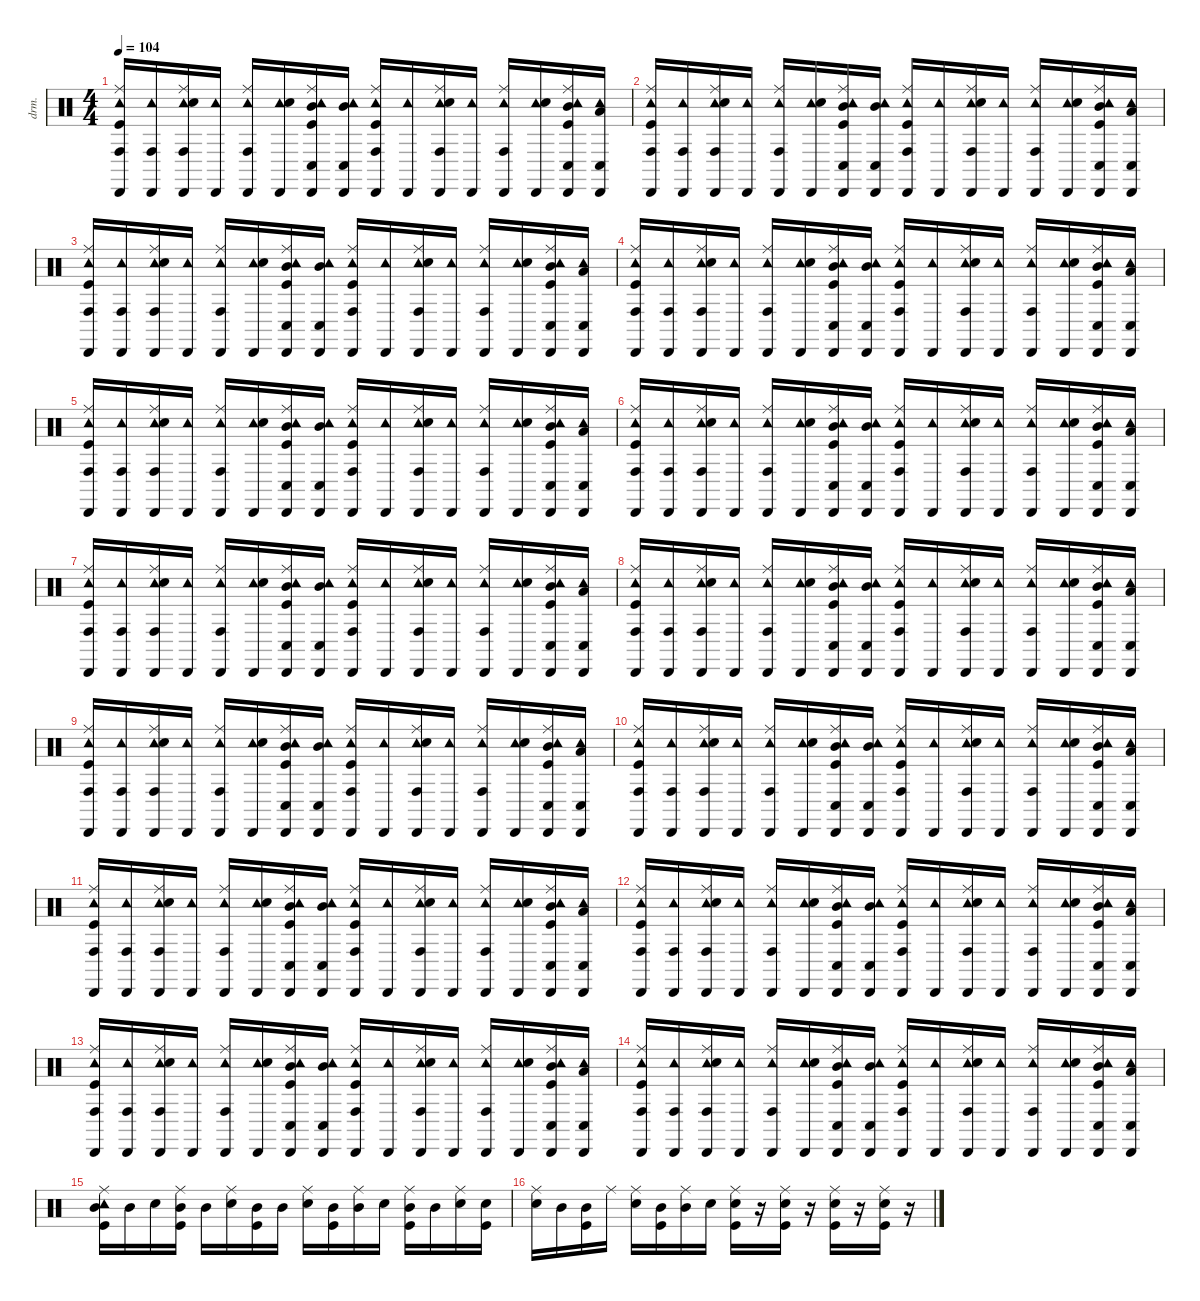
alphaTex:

\defaultSystemsLayout 4
\hideDynamics
\bracketExtendMode nobrackets
\otherSystemsTrackNameOrientation horizontal
\track ("Drums" "drm.") {instrument percussion}
\staff {score}
\articulation defaults
\ts (4 4)
\tempo 104
\clef neutral
\ks c
("Cabasa (hit)" "Conga high (hit)" "Tambourine (hit)" "Ride (middle)" "Kick (hit)").16{dy f beam Up} ("Cabasa (hit)" "Conga high (hit)" "Tambourine (hit)").16{beam Up} ("Cabasa (hit)" "Conga high (hit)" "Tambourine (hit)" "Ride (middle)" "Snare (hit) 2").16{beam Up} ("Cabasa (hit)" "Tambourine (hit)").16{beam Up} ("Cabasa (hit)" "Conga high (hit)" "Tambourine (hit)" "Ride (middle)").16{beam Up} ("Cabasa (hit)" "Tambourine (hit)" "Snare (hit) 2").16{beam Up} ("Cabasa (hit)" "Conga low (hit)" "Tambourine (hit)" "Ride (middle)" "Mid Tom (hit)" "Kick (hit)").16{beam Up} ("Cabasa (hit)" "Conga low (hit)" "Tambourine (hit)" "Mid Tom (hit)").16{beam Up} ("Cabasa (hit)" "Conga high (hit)" "Tambourine (hit)" "Ride (middle)" "Kick (hit)").16{beam Up} ("Cabasa (hit)" "Tambourine (hit)").16{beam Up} ("Cabasa (hit)" "Conga high (hit)" "Tambourine (hit)" "Ride (middle)" "Snare (hit) 2").16{beam Up} ("Cabasa (hit)" "Tambourine (hit)").16{beam Up} ("Cabasa (hit)" "Conga high (hit)" "Tambourine (hit)" "Ride (middle)").16{beam Up} ("Cabasa (hit)" "Tambourine (hit)" "Snare (hit) 2").16{beam Up} ("Cabasa (hit)" "Conga low (hit)" "Tambourine (hit)" "Ride (middle)" "Mid Tom (hit)" "Kick (hit)").16{beam Up} ("Cabasa (hit)" "Conga low (hit)" "Tambourine (hit)" "Low Tom (hit)").16{beam Up} |
("Cabasa (hit)" "Conga high (hit)" "Tambourine (hit)" "Ride (middle)" "Kick (hit)").16{beam Up} ("Cabasa (hit)" "Conga high (hit)" "Tambourine (hit)").16{beam Up} ("Cabasa (hit)" "Conga high (hit)" "Tambourine (hit)" "Ride (middle)" "Snare (hit) 2").16{beam Up} ("Cabasa (hit)" "Tambourine (hit)").16{beam Up} ("Cabasa (hit)" "Conga high (hit)" "Tambourine (hit)" "Ride (middle)").16{beam Up} ("Cabasa (hit)" "Tambourine (hit)" "Snare (hit) 2").16{beam Up} ("Cabasa (hit)" "Conga low (hit)" "Tambourine (hit)" "Ride (middle)" "Mid Tom (hit)" "Kick (hit)").16{beam Up} ("Cabasa (hit)" "Conga low (hit)" "Tambourine (hit)" "Mid Tom (hit)").16{beam Up} ("Cabasa (hit)" "Conga high (hit)" "Tambourine (hit)" "Ride (middle)" "Kick (hit)").16{beam Up} ("Cabasa (hit)" "Tambourine (hit)").16{beam Up} ("Cabasa (hit)" "Conga high (hit)" "Tambourine (hit)" "Ride (middle)" "Snare (hit) 2").16{beam Up} ("Cabasa (hit)" "Tambourine (hit)").16{beam Up} ("Cabasa (hit)" "Conga high (hit)" "Tambourine (hit)" "Ride (middle)").16{beam Up} ("Cabasa (hit)" "Tambourine (hit)" "Snare (hit) 2").16{beam Up} ("Cabasa (hit)" "Conga low (hit)" "Tambourine (hit)" "Ride (middle)" "Mid Tom (hit)" "Kick (hit)").16{beam Up} ("Cabasa (hit)" "Conga low (hit)" "Tambourine (hit)" "Low Tom (hit)").16{beam Up} |
("Cabasa (hit)" "Conga high (hit)" "Tambourine (hit)" "Ride (middle)" "Kick (hit)").16{beam Up} ("Cabasa (hit)" "Conga high (hit)" "Tambourine (hit)").16{beam Up} ("Cabasa (hit)" "Conga high (hit)" "Tambourine (hit)" "Ride (middle)" "Snare (hit) 2").16{beam Up} ("Cabasa (hit)" "Tambourine (hit)").16{beam Up} ("Cabasa (hit)" "Conga high (hit)" "Tambourine (hit)" "Ride (middle)").16{beam Up} ("Cabasa (hit)" "Tambourine (hit)" "Snare (hit) 2").16{beam Up} ("Cabasa (hit)" "Conga low (hit)" "Tambourine (hit)" "Ride (middle)" "Mid Tom (hit)" "Kick (hit)").16{beam Up} ("Cabasa (hit)" "Conga low (hit)" "Tambourine (hit)" "Mid Tom (hit)").16{beam Up} ("Cabasa (hit)" "Conga high (hit)" "Tambourine (hit)" "Ride (middle)" "Kick (hit)").16{beam Up} ("Cabasa (hit)" "Tambourine (hit)").16{beam Up} ("Cabasa (hit)" "Conga high (hit)" "Tambourine (hit)" "Ride (middle)" "Snare (hit) 2").16{beam Up} ("Cabasa (hit)" "Tambourine (hit)").16{beam Up} ("Cabasa (hit)" "Conga high (hit)" "Tambourine (hit)" "Ride (middle)").16{beam Up} ("Cabasa (hit)" "Tambourine (hit)" "Snare (hit) 2").16{beam Up} ("Cabasa (hit)" "Conga low (hit)" "Tambourine (hit)" "Ride (middle)" "Mid Tom (hit)" "Kick (hit)").16{beam Up} ("Cabasa (hit)" "Conga low (hit)" "Tambourine (hit)" "Low Tom (hit)").16{beam Up} |
("Cabasa (hit)" "Conga high (hit)" "Tambourine (hit)" "Ride (middle)" "Kick (hit)").16{beam Up} ("Cabasa (hit)" "Conga high (hit)" "Tambourine (hit)").16{beam Up} ("Cabasa (hit)" "Conga high (hit)" "Tambourine (hit)" "Ride (middle)" "Snare (hit) 2").16{beam Up} ("Cabasa (hit)" "Tambourine (hit)").16{beam Up} ("Cabasa (hit)" "Conga high (hit)" "Tambourine (hit)" "Ride (middle)").16{beam Up} ("Cabasa (hit)" "Tambourine (hit)" "Snare (hit) 2").16{beam Up} ("Cabasa (hit)" "Conga low (hit)" "Tambourine (hit)" "Ride (middle)" "Mid Tom (hit)" "Kick (hit)").16{beam Up} ("Cabasa (hit)" "Conga low (hit)" "Tambourine (hit)" "Mid Tom (hit)").16{beam Up} ("Cabasa (hit)" "Conga high (hit)" "Tambourine (hit)" "Ride (middle)" "Kick (hit)").16{beam Up} ("Cabasa (hit)" "Tambourine (hit)").16{beam Up} ("Cabasa (hit)" "Conga high (hit)" "Tambourine (hit)" "Ride (middle)" "Snare (hit) 2").16{beam Up} ("Cabasa (hit)" "Tambourine (hit)").16{beam Up} ("Cabasa (hit)" "Conga high (hit)" "Tambourine (hit)" "Ride (middle)").16{beam Up} ("Cabasa (hit)" "Tambourine (hit)" "Snare (hit) 2").16{beam Up} ("Cabasa (hit)" "Conga low (hit)" "Tambourine (hit)" "Ride (middle)" "Mid Tom (hit)" "Kick (hit)").16{beam Up} ("Cabasa (hit)" "Conga low (hit)" "Tambourine (hit)" "Low Tom (hit)").16{beam Up} |
("Cabasa (hit)" "Conga high (hit)" "Tambourine (hit)" "Ride (middle)" "Kick (hit)").16{beam Up} ("Cabasa (hit)" "Conga high (hit)" "Tambourine (hit)").16{beam Up} ("Cabasa (hit)" "Conga high (hit)" "Tambourine (hit)" "Ride (middle)" "Snare (hit) 2").16{beam Up} ("Cabasa (hit)" "Tambourine (hit)").16{beam Up} ("Cabasa (hit)" "Conga high (hit)" "Tambourine (hit)" "Ride (middle)").16{beam Up} ("Cabasa (hit)" "Tambourine (hit)" "Snare (hit) 2").16{beam Up} ("Cabasa (hit)" "Conga low (hit)" "Tambourine (hit)" "Ride (middle)" "Mid Tom (hit)" "Kick (hit)").16{beam Up} ("Cabasa (hit)" "Conga low (hit)" "Tambourine (hit)" "Mid Tom (hit)").16{beam Up} ("Cabasa (hit)" "Conga high (hit)" "Tambourine (hit)" "Ride (middle)" "Kick (hit)").16{beam Up} ("Cabasa (hit)" "Tambourine (hit)").16{beam Up} ("Cabasa (hit)" "Conga high (hit)" "Tambourine (hit)" "Ride (middle)" "Snare (hit) 2").16{beam Up} ("Cabasa (hit)" "Tambourine (hit)").16{beam Up} ("Cabasa (hit)" "Conga high (hit)" "Tambourine (hit)" "Ride (middle)").16{beam Up} ("Cabasa (hit)" "Tambourine (hit)" "Snare (hit) 2").16{beam Up} ("Cabasa (hit)" "Conga low (hit)" "Tambourine (hit)" "Ride (middle)" "Mid Tom (hit)" "Kick (hit)").16{beam Up} ("Cabasa (hit)" "Conga low (hit)" "Tambourine (hit)" "Low Tom (hit)").16{beam Up} |
("Cabasa (hit)" "Conga high (hit)" "Tambourine (hit)" "Ride (middle)" "Kick (hit)").16{beam Up} ("Cabasa (hit)" "Conga high (hit)" "Tambourine (hit)").16{beam Up} ("Cabasa (hit)" "Conga high (hit)" "Tambourine (hit)" "Ride (middle)" "Snare (hit) 2").16{beam Up} ("Cabasa (hit)" "Tambourine (hit)").16{beam Up} ("Cabasa (hit)" "Conga high (hit)" "Tambourine (hit)" "Ride (middle)").16{beam Up} ("Cabasa (hit)" "Tambourine (hit)" "Snare (hit) 2").16{beam Up} ("Cabasa (hit)" "Conga low (hit)" "Tambourine (hit)" "Ride (middle)" "Mid Tom (hit)" "Kick (hit)").16{beam Up} ("Cabasa (hit)" "Conga low (hit)" "Tambourine (hit)" "Mid Tom (hit)").16{beam Up} ("Cabasa (hit)" "Conga high (hit)" "Tambourine (hit)" "Ride (middle)" "Kick (hit)").16{beam Up} ("Cabasa (hit)" "Tambourine (hit)").16{beam Up} ("Cabasa (hit)" "Conga high (hit)" "Tambourine (hit)" "Ride (middle)" "Snare (hit) 2").16{beam Up} ("Cabasa (hit)" "Tambourine (hit)").16{beam Up} ("Cabasa (hit)" "Conga high (hit)" "Tambourine (hit)" "Ride (middle)").16{beam Up} ("Cabasa (hit)" "Tambourine (hit)" "Snare (hit) 2").16{beam Up} ("Cabasa (hit)" "Conga low (hit)" "Tambourine (hit)" "Ride (middle)" "Mid Tom (hit)" "Kick (hit)").16{beam Up} ("Cabasa (hit)" "Conga low (hit)" "Tambourine (hit)" "Low Tom (hit)").16{beam Up} |
("Cabasa (hit)" "Conga high (hit)" "Tambourine (hit)" "Ride (middle)" "Kick (hit)").16{beam Up} ("Cabasa (hit)" "Conga high (hit)" "Tambourine (hit)").16{beam Up} ("Cabasa (hit)" "Conga high (hit)" "Tambourine (hit)" "Ride (middle)" "Snare (hit) 2").16{beam Up} ("Cabasa (hit)" "Tambourine (hit)").16{beam Up} ("Cabasa (hit)" "Conga high (hit)" "Tambourine (hit)" "Ride (middle)").16{beam Up} ("Cabasa (hit)" "Tambourine (hit)" "Snare (hit) 2").16{beam Up} ("Cabasa (hit)" "Conga low (hit)" "Tambourine (hit)" "Ride (middle)" "Mid Tom (hit)" "Kick (hit)").16{beam Up} ("Cabasa (hit)" "Conga low (hit)" "Tambourine (hit)" "Mid Tom (hit)").16{beam Up} ("Cabasa (hit)" "Conga high (hit)" "Tambourine (hit)" "Ride (middle)" "Kick (hit)").16{beam Up} ("Cabasa (hit)" "Tambourine (hit)").16{beam Up} ("Cabasa (hit)" "Conga high (hit)" "Tambourine (hit)" "Ride (middle)" "Snare (hit) 2").16{beam Up} ("Cabasa (hit)" "Tambourine (hit)").16{beam Up} ("Cabasa (hit)" "Conga high (hit)" "Tambourine (hit)" "Ride (middle)").16{beam Up} ("Cabasa (hit)" "Tambourine (hit)" "Snare (hit) 2").16{beam Up} ("Cabasa (hit)" "Conga low (hit)" "Tambourine (hit)" "Ride (middle)" "Mid Tom (hit)" "Kick (hit)").16{beam Up} ("Cabasa (hit)" "Conga low (hit)" "Tambourine (hit)" "Low Tom (hit)").16{beam Up} |
("Cabasa (hit)" "Conga high (hit)" "Tambourine (hit)" "Ride (middle)" "Kick (hit)").16{beam Up} ("Cabasa (hit)" "Conga high (hit)" "Tambourine (hit)").16{beam Up} ("Cabasa (hit)" "Conga high (hit)" "Tambourine (hit)" "Ride (middle)" "Snare (hit) 2").16{beam Up} ("Cabasa (hit)" "Tambourine (hit)").16{beam Up} ("Cabasa (hit)" "Conga high (hit)" "Tambourine (hit)" "Ride (middle)").16{beam Up} ("Cabasa (hit)" "Tambourine (hit)" "Snare (hit) 2").16{beam Up} ("Cabasa (hit)" "Conga low (hit)" "Tambourine (hit)" "Ride (middle)" "Mid Tom (hit)" "Kick (hit)").16{beam Up} ("Cabasa (hit)" "Conga low (hit)" "Tambourine (hit)" "Mid Tom (hit)").16{beam Up} ("Cabasa (hit)" "Conga high (hit)" "Tambourine (hit)" "Ride (middle)" "Kick (hit)").16{beam Up} ("Cabasa (hit)" "Tambourine (hit)").16{beam Up} ("Cabasa (hit)" "Conga high (hit)" "Tambourine (hit)" "Ride (middle)" "Snare (hit) 2").16{beam Up} ("Cabasa (hit)" "Tambourine (hit)").16{beam Up} ("Cabasa (hit)" "Conga high (hit)" "Tambourine (hit)" "Ride (middle)").16{beam Up} ("Cabasa (hit)" "Tambourine (hit)" "Snare (hit) 2").16{beam Up} ("Cabasa (hit)" "Conga low (hit)" "Tambourine (hit)" "Ride (middle)" "Mid Tom (hit)" "Kick (hit)").16{beam Up} ("Cabasa (hit)" "Conga low (hit)" "Tambourine (hit)" "Low Tom (hit)").16{beam Up} |
("Cabasa (hit)" "Conga high (hit)" "Tambourine (hit)" "Ride (middle)" "Kick (hit)").16{beam Up} ("Cabasa (hit)" "Conga high (hit)" "Tambourine (hit)").16{beam Up} ("Cabasa (hit)" "Conga high (hit)" "Tambourine (hit)" "Ride (middle)" "Snare (hit) 2").16{beam Up} ("Cabasa (hit)" "Tambourine (hit)").16{beam Up} ("Cabasa (hit)" "Conga high (hit)" "Tambourine (hit)" "Ride (middle)").16{beam Up} ("Cabasa (hit)" "Tambourine (hit)" "Snare (hit) 2").16{beam Up} ("Cabasa (hit)" "Conga low (hit)" "Tambourine (hit)" "Ride (middle)" "Mid Tom (hit)" "Kick (hit)").16{beam Up} ("Cabasa (hit)" "Conga low (hit)" "Tambourine (hit)" "Mid Tom (hit)").16{beam Up} ("Cabasa (hit)" "Conga high (hit)" "Tambourine (hit)" "Ride (middle)" "Kick (hit)").16{beam Up} ("Cabasa (hit)" "Tambourine (hit)").16{beam Up} ("Cabasa (hit)" "Conga high (hit)" "Tambourine (hit)" "Ride (middle)" "Snare (hit) 2").16{beam Up} ("Cabasa (hit)" "Tambourine (hit)").16{beam Up} ("Cabasa (hit)" "Conga high (hit)" "Tambourine (hit)" "Ride (middle)").16{beam Up} ("Cabasa (hit)" "Tambourine (hit)" "Snare (hit) 2").16{beam Up} ("Cabasa (hit)" "Conga low (hit)" "Tambourine (hit)" "Ride (middle)" "Mid Tom (hit)" "Kick (hit)").16{beam Up} ("Cabasa (hit)" "Conga low (hit)" "Tambourine (hit)" "Low Tom (hit)").16{beam Up} |
("Cabasa (hit)" "Conga high (hit)" "Tambourine (hit)" "Ride (middle)" "Kick (hit)").16{beam Up} ("Cabasa (hit)" "Conga high (hit)" "Tambourine (hit)").16{beam Up} ("Cabasa (hit)" "Conga high (hit)" "Tambourine (hit)" "Ride (middle)" "Snare (hit) 2").16{beam Up} ("Cabasa (hit)" "Tambourine (hit)").16{beam Up} ("Cabasa (hit)" "Conga high (hit)" "Tambourine (hit)" "Ride (middle)").16{beam Up} ("Cabasa (hit)" "Tambourine (hit)" "Snare (hit) 2").16{beam Up} ("Cabasa (hit)" "Conga low (hit)" "Tambourine (hit)" "Ride (middle)" "Mid Tom (hit)" "Kick (hit)").16{beam Up} ("Cabasa (hit)" "Conga low (hit)" "Tambourine (hit)" "Mid Tom (hit)").16{beam Up} ("Cabasa (hit)" "Conga high (hit)" "Tambourine (hit)" "Ride (middle)" "Kick (hit)").16{beam Up} ("Cabasa (hit)" "Tambourine (hit)").16{beam Up} ("Cabasa (hit)" "Conga high (hit)" "Tambourine (hit)" "Ride (middle)" "Snare (hit) 2").16{beam Up} ("Cabasa (hit)" "Tambourine (hit)").16{beam Up} ("Cabasa (hit)" "Conga high (hit)" "Tambourine (hit)" "Ride (middle)").16{beam Up} ("Cabasa (hit)" "Tambourine (hit)" "Snare (hit) 2").16{beam Up} ("Cabasa (hit)" "Conga low (hit)" "Tambourine (hit)" "Ride (middle)" "Mid Tom (hit)" "Kick (hit)").16{beam Up} ("Cabasa (hit)" "Conga low (hit)" "Tambourine (hit)" "Low Tom (hit)").16{beam Up} |
("Cabasa (hit)" "Conga high (hit)" "Tambourine (hit)" "Ride (middle)" "Kick (hit)").16{beam Up} ("Cabasa (hit)" "Conga high (hit)" "Tambourine (hit)").16{beam Up} ("Cabasa (hit)" "Conga high (hit)" "Tambourine (hit)" "Ride (middle)" "Snare (hit) 2").16{beam Up} ("Cabasa (hit)" "Tambourine (hit)").16{beam Up} ("Cabasa (hit)" "Conga high (hit)" "Tambourine (hit)" "Ride (middle)").16{beam Up} ("Cabasa (hit)" "Tambourine (hit)" "Snare (hit) 2").16{beam Up} ("Cabasa (hit)" "Conga low (hit)" "Tambourine (hit)" "Ride (middle)" "Mid Tom (hit)" "Kick (hit)").16{beam Up} ("Cabasa (hit)" "Conga low (hit)" "Tambourine (hit)" "Mid Tom (hit)").16{beam Up} ("Cabasa (hit)" "Conga high (hit)" "Tambourine (hit)" "Ride (middle)" "Kick (hit)").16{beam Up} ("Cabasa (hit)" "Tambourine (hit)").16{beam Up} ("Cabasa (hit)" "Conga high (hit)" "Tambourine (hit)" "Ride (middle)" "Snare (hit) 2").16{beam Up} ("Cabasa (hit)" "Tambourine (hit)").16{beam Up} ("Cabasa (hit)" "Conga high (hit)" "Tambourine (hit)" "Ride (middle)").16{beam Up} ("Cabasa (hit)" "Tambourine (hit)" "Snare (hit) 2").16{beam Up} ("Cabasa (hit)" "Conga low (hit)" "Tambourine (hit)" "Ride (middle)" "Mid Tom (hit)" "Kick (hit)").16{beam Up} ("Cabasa (hit)" "Conga low (hit)" "Tambourine (hit)" "Low Tom (hit)").16{beam Up} |
("Cabasa (hit)" "Conga high (hit)" "Tambourine (hit)" "Ride (middle)" "Kick (hit)").16{beam Up} ("Cabasa (hit)" "Conga high (hit)" "Tambourine (hit)").16{beam Up} ("Cabasa (hit)" "Conga high (hit)" "Tambourine (hit)" "Ride (middle)" "Snare (hit) 2").16{beam Up} ("Cabasa (hit)" "Tambourine (hit)").16{beam Up} ("Cabasa (hit)" "Conga high (hit)" "Tambourine (hit)" "Ride (middle)").16{beam Up} ("Cabasa (hit)" "Tambourine (hit)" "Snare (hit) 2").16{beam Up} ("Cabasa (hit)" "Conga low (hit)" "Tambourine (hit)" "Ride (middle)" "Mid Tom (hit)" "Kick (hit)").16{beam Up} ("Cabasa (hit)" "Conga low (hit)" "Tambourine (hit)" "Mid Tom (hit)").16{beam Up} ("Cabasa (hit)" "Conga high (hit)" "Tambourine (hit)" "Ride (middle)" "Kick (hit)").16{beam Up} ("Cabasa (hit)" "Tambourine (hit)").16{beam Up} ("Cabasa (hit)" "Conga high (hit)" "Tambourine (hit)" "Ride (middle)" "Snare (hit) 2").16{beam Up} ("Cabasa (hit)" "Tambourine (hit)").16{beam Up} ("Cabasa (hit)" "Conga high (hit)" "Tambourine (hit)" "Ride (middle)").16{beam Up} ("Cabasa (hit)" "Tambourine (hit)" "Snare (hit) 2").16{beam Up} ("Cabasa (hit)" "Conga low (hit)" "Tambourine (hit)" "Ride (middle)" "Mid Tom (hit)" "Kick (hit)").16{beam Up} ("Cabasa (hit)" "Conga low (hit)" "Tambourine (hit)" "Low Tom (hit)").16{beam Up} |
("Cabasa (hit)" "Conga high (hit)" "Tambourine (hit)" "Ride (middle)" "Kick (hit)").16{beam Up} ("Cabasa (hit)" "Conga high (hit)" "Tambourine (hit)").16{beam Up} ("Cabasa (hit)" "Conga high (hit)" "Tambourine (hit)" "Ride (middle)" "Snare (hit) 2").16{beam Up} ("Cabasa (hit)" "Tambourine (hit)").16{beam Up} ("Cabasa (hit)" "Conga high (hit)" "Tambourine (hit)" "Ride (middle)").16{beam Up} ("Cabasa (hit)" "Tambourine (hit)" "Snare (hit) 2").16{beam Up} ("Cabasa (hit)" "Conga low (hit)" "Tambourine (hit)" "Ride (middle)" "Mid Tom (hit)" "Kick (hit)").16{beam Up} ("Cabasa (hit)" "Conga low (hit)" "Tambourine (hit)" "Mid Tom (hit)").16{beam Up} ("Cabasa (hit)" "Conga high (hit)" "Tambourine (hit)" "Ride (middle)" "Kick (hit)").16{beam Up} ("Cabasa (hit)" "Tambourine (hit)").16{beam Up} ("Cabasa (hit)" "Conga high (hit)" "Tambourine (hit)" "Ride (middle)" "Snare (hit) 2").16{beam Up} ("Cabasa (hit)" "Tambourine (hit)").16{beam Up} ("Cabasa (hit)" "Conga high (hit)" "Tambourine (hit)" "Ride (middle)").16{beam Up} ("Cabasa (hit)" "Tambourine (hit)" "Snare (hit) 2").16{beam Up} ("Cabasa (hit)" "Conga low (hit)" "Tambourine (hit)" "Ride (middle)" "Mid Tom (hit)" "Kick (hit)").16{beam Up} ("Cabasa (hit)" "Conga low (hit)" "Tambourine (hit)" "Low Tom (hit)").16{beam Up} |
("Cabasa (hit)" "Conga high (hit)" "Tambourine (hit)" "Ride (middle)" "Kick (hit)").16{beam Up} ("Cabasa (hit)" "Conga high (hit)" "Tambourine (hit)").16{beam Up} ("Cabasa (hit)" "Conga high (hit)" "Tambourine (hit)" "Ride (middle)" "Snare (hit) 2").16{beam Up} ("Cabasa (hit)" "Tambourine (hit)").16{beam Up} ("Cabasa (hit)" "Conga high (hit)" "Tambourine (hit)" "Ride (middle)").16{beam Up} ("Cabasa (hit)" "Tambourine (hit)" "Snare (hit) 2").16{beam Up} ("Cabasa (hit)" "Conga low (hit)" "Tambourine (hit)" "Ride (middle)" "Mid Tom (hit)" "Kick (hit)").16{beam Up} ("Cabasa (hit)" "Conga low (hit)" "Tambourine (hit)" "Mid Tom (hit)").16{beam Up} ("Cabasa (hit)" "Conga high (hit)" "Tambourine (hit)" "Ride (middle)" "Kick (hit)").16{beam Up} ("Cabasa (hit)" "Tambourine (hit)").16{beam Up} ("Cabasa (hit)" "Conga high (hit)" "Tambourine (hit)" "Ride (middle)" "Snare (hit) 2").16{beam Up} ("Cabasa (hit)" "Tambourine (hit)").16{beam Up} ("Cabasa (hit)" "Conga high (hit)" "Tambourine (hit)" "Ride (middle)").16{beam Up} ("Cabasa (hit)" "Tambourine (hit)" "Snare (hit) 2").16{beam Up} ("Cabasa (hit)" "Conga low (hit)" "Tambourine (hit)" "Ride (middle)" "Mid Tom (hit)" "Kick (hit)").16{beam Up} ("Cabasa (hit)" "Conga low (hit)" "Tambourine (hit)" "Low Tom (hit)").16{beam Up} |
("Tambourine (hit)" "Ride (middle)" "Mid Tom (hit)" "Kick (hit)").16{beam Down} "Mid Tom (hit)".16{beam Down} "Snare (hit) 2".16{beam Down} ("Ride (middle)" "Mid Tom (hit)" "Kick (hit)").16{beam Down} "Mid Tom (hit)".16{beam Down} ("Ride (middle)" "Snare (hit) 2").16{beam Down} ("Mid Tom (hit)" "Kick (hit)").16{beam Down} "Mid Tom (hit)".16{beam Down} ("Ride (middle)" "Snare (hit) 2").16{beam Down} ("Mid Tom (hit)" "Kick (hit)").16{beam Down} ("Ride (middle)" "Mid Tom (hit)").16{beam Down} "Snare (hit) 2".16{beam Down} ("Ride (middle)" "Mid Tom (hit)" "Kick (hit)").16{beam Down} "Mid Tom (hit)".16{beam Down} ("Ride (middle)" "Snare (hit) 2").16{beam Down} ("Snare (hit) 2" "Kick (hit)").16{beam Down} |
("Ride (middle)" "Snare (hit) 2").16{beam Down} "Mid Tom (hit)".16{beam Down} ("Mid Tom (hit)" "Kick (hit)").16{beam Down} "Ride (middle)".16{beam Down} ("Ride (middle)" "Snare (hit) 2").16{beam Down} ("Mid Tom (hit)" "Kick (hit)").16{beam Down} ("Ride (middle)" "Mid Tom (hit)").16{beam Down} "Snare (hit) 2".16{beam Down} ("Ride (middle)" "Snare (hit) 2" "Kick (hit)").16{beam Down} r.16{beam Down} ("Ride (middle)" "Snare (hit) 2" "Kick (hit)").16{beam Down} r.16{beam Down} ("Ride (middle)" "Snare (hit) 2" "Kick (hit)").16{beam Down} r.16{beam Down} ("Ride (middle)" "Snare (hit) 2" "Kick (hit)").16{beam Down} r.16{beam Down}
